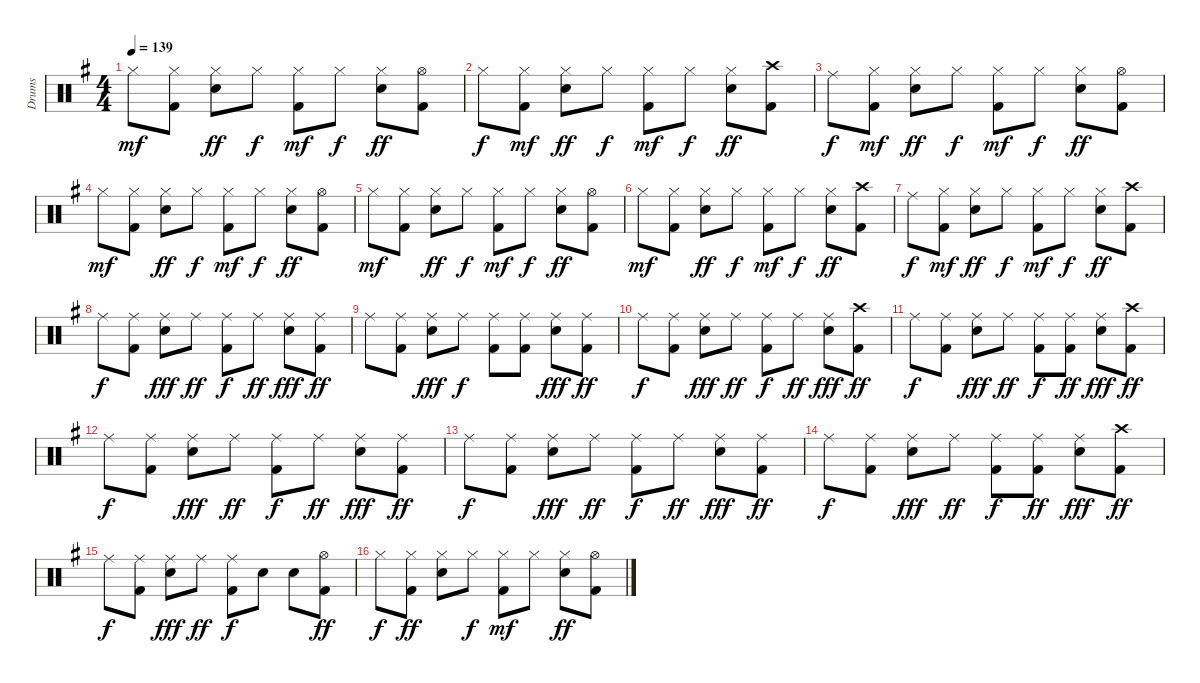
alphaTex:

\track ("Drums" "Drums") {instrument percussion}
\staff {score}
\articulation defaults
\ts (4 4)
\tempo 139
\clef neutral
\ks g "Hi-Hat (closed)".8{dy mf}
("Hi-Hat (closed)" "Kick (hit) 2").8 ("Hi-Hat (closed)" "Snare (hit) 2").8{dy ff} "Hi-Hat (closed)".8{dy f} ("Hi-Hat (closed)" "Kick (hit) 2").8{dy mf} "Hi-Hat (closed)".8{dy f} ("Hi-Hat (closed)" "Snare (hit) 2").8{dy ff} ("Hi-Hat (open)" "Kick (hit) 2").8 |
"Hi-Hat (closed)".8{dy f} ("Hi-Hat (closed)" "Kick (hit) 2").8{dy mf} ("Hi-Hat (closed)" "Snare (hit) 2").8{dy ff} "Hi-Hat (closed)".8{dy f} ("Hi-Hat (closed)" "Kick (hit) 2").8{dy mf} "Hi-Hat (closed)".8{dy f} ("Hi-Hat (closed)" "Snare (hit) 2").8{dy ff} ("Crash high (hit)" "Kick (hit) 2").8 |
"Ride (middle)".8{dy f} ("Hi-Hat (closed)" "Kick (hit) 2").8{dy mf} ("Hi-Hat (closed)" "Snare (hit) 2").8{dy ff} "Hi-Hat (closed)".8{dy f} ("Hi-Hat (closed)" "Kick (hit) 2").8{dy mf} "Hi-Hat (closed)".8{dy f} ("Hi-Hat (closed)" "Snare (hit) 2").8{dy ff} ("Hi-Hat (open)" "Kick (hit) 2").8 |
"Hi-Hat (closed)".8{dy mf} ("Hi-Hat (closed)" "Kick (hit) 2").8 ("Hi-Hat (closed)" "Snare (hit) 2").8{dy ff} "Hi-Hat (closed)".8{dy f} ("Hi-Hat (closed)" "Kick (hit) 2").8{dy mf} "Hi-Hat (closed)".8{dy f} ("Hi-Hat (closed)" "Snare (hit) 2").8{dy ff} ("Hi-Hat (open)" "Kick (hit) 2").8 |
"Hi-Hat (closed)".8{dy mf} ("Hi-Hat (closed)" "Kick (hit) 2").8 ("Hi-Hat (closed)" "Snare (hit) 2").8{dy ff} "Hi-Hat (closed)".8{dy f} ("Hi-Hat (closed)" "Kick (hit) 2").8{dy mf} "Hi-Hat (closed)".8{dy f} ("Hi-Hat (closed)" "Snare (hit) 2").8{dy ff} ("Hi-Hat (open)" "Kick (hit) 2").8 |
"Hi-Hat (closed)".8{dy mf} ("Hi-Hat (closed)" "Kick (hit) 2").8 ("Hi-Hat (closed)" "Snare (hit) 2").8{dy ff} "Hi-Hat (closed)".8{dy f} ("Hi-Hat (closed)" "Kick (hit) 2").8{dy mf} "Hi-Hat (closed)".8{dy f} ("Hi-Hat (closed)" "Snare (hit) 2").8{dy ff} ("Crash high (hit)" "Kick (hit) 2").8 |
"Ride (middle)".8{dy f} ("Hi-Hat (closed)" "Kick (hit) 2").8{dy mf} ("Hi-Hat (closed)" "Snare (hit) 2").8{dy ff} "Hi-Hat (closed)".8{dy f} ("Hi-Hat (closed)" "Kick (hit) 2").8{dy mf} "Hi-Hat (closed)".8{dy f} ("Hi-Hat (closed)" "Snare (hit) 2").8{dy ff} ("Crash high (hit)" "Kick (hit) 2").8 |
"Ride (middle)".8{dy f} ("Ride (middle)" "Kick (hit) 2").8 ("Ride (middle)" "Snare (hit) 2").8{dy fff} "Ride (middle)".8{dy ff} ("Ride (middle)" "Kick (hit) 2").8{dy f} "Ride (middle)".8{dy ff} ("Ride (middle)" "Snare (hit) 2").8{dy fff} ("Ride (middle)" "Kick (hit) 2").8{dy ff} |
"Ride (middle)".8 ("Ride (middle)" "Kick (hit) 2").8 ("Ride (middle)" "Snare (hit) 2").8{dy fff} "Ride (middle)".8{dy f} ("Ride (middle)" "Kick (hit) 2").8 ("Ride (middle)" "Kick (hit) 2").8 ("Ride (middle)" "Snare (hit) 2").8{dy fff} ("Ride (middle)" "Kick (hit) 2").8{dy ff} |
"Ride (middle)".8{dy f} ("Ride (middle)" "Kick (hit) 2").8 ("Ride (middle)" "Snare (hit) 2").8{dy fff} "Ride (middle)".8{dy ff} ("Ride (middle)" "Kick (hit) 2").8{dy f} "Ride (middle)".8{dy ff} ("Ride (middle)" "Snare (hit) 2").8{dy fff} ("Crash high (hit)" "Kick (hit) 2").8{dy ff} |
"Ride (middle)".8{dy f} ("Ride (middle)" "Kick (hit) 2").8 ("Ride (middle)" "Snare (hit) 2").8{dy fff} "Ride (middle)".8{dy ff} ("Ride (middle)" "Kick (hit) 2").8{dy f} ("Ride (middle)" "Kick (hit) 2").8{dy ff} ("Ride (middle)" "Snare (hit) 2").8{dy fff} ("Crash high (hit)" "Kick (hit) 2").8{dy ff} |
"Ride (middle)".8{dy f} ("Ride (middle)" "Kick (hit) 2").8 ("Ride (middle)" "Snare (hit) 2").8{dy fff} "Ride (middle)".8{dy ff} ("Ride (middle)" "Kick (hit) 2").8{dy f} "Ride (middle)".8{dy ff} ("Ride (middle)" "Snare (hit) 2").8{dy fff} ("Ride (middle)" "Kick (hit) 2").8{dy ff} |
"Ride (middle)".8{dy f} ("Ride (middle)" "Kick (hit) 2").8 ("Ride (middle)" "Snare (hit) 2").8{dy fff} "Ride (middle)".8{dy ff} ("Ride (middle)" "Kick (hit) 2").8{dy f} "Ride (middle)".8{dy ff} ("Ride (middle)" "Snare (hit) 2").8{dy fff} ("Ride (middle)" "Kick (hit) 2").8{dy ff} |
"Ride (middle)".8{dy f} ("Ride (middle)" "Kick (hit) 2").8 ("Ride (middle)" "Snare (hit) 2").8{dy fff} "Ride (middle)".8{dy ff} ("Ride (middle)" "Kick (hit) 2").8{dy f} ("Ride (middle)" "Kick (hit) 2").8{dy ff} ("Ride (middle)" "Snare (hit) 2").8{dy fff} ("Crash high (hit)" "Kick (hit) 2").8{dy ff} |
"Ride (middle)".8{dy f} ("Ride (middle)" "Kick (hit) 2").8 ("Ride (middle)" "Snare (hit) 2").8{dy fff} "Ride (middle)".8{dy ff} ("Ride (middle)" "Kick (hit) 2").8{dy f} "Snare (hit) 2".8 "Snare (hit) 2".8 ("Hi-Hat (open)" "Kick (hit) 2").8{dy ff} |
"Hi-Hat (closed)".8{dy f} ("Hi-Hat (closed)" "Kick (hit) 2").8{dy ff} ("Hi-Hat (closed)" "Snare (hit) 2").8 "Hi-Hat (closed)".8{dy f} ("Hi-Hat (closed)" "Kick (hit) 2").8{dy mf} "Hi-Hat (closed)".8 ("Hi-Hat (closed)" "Snare (hit) 2").8{dy ff} ("Hi-Hat (open)" "Kick (hit) 2").8
